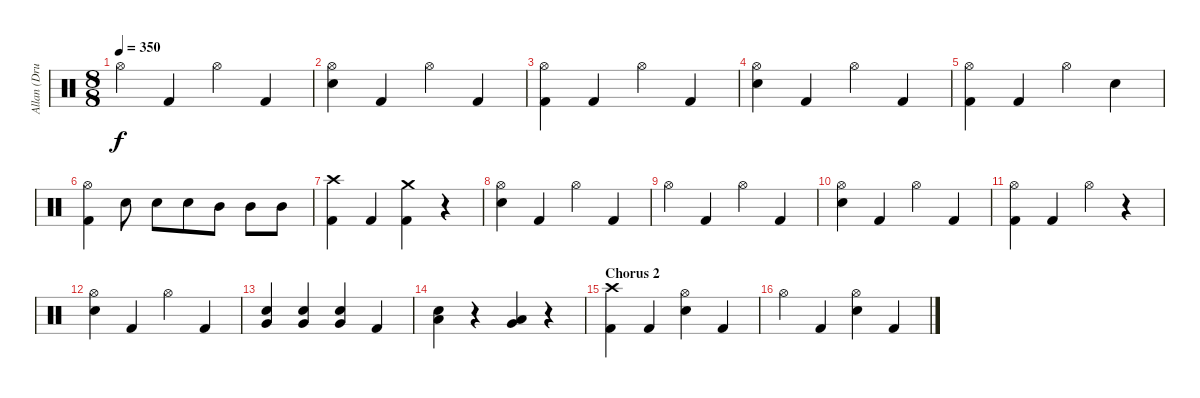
\track ("Allan (Drums)" "Allan (Dru") {instrument percussion}
\staff {score}
\articulation defaults
\ts (8 8)
\tempo 350
\clef neutral
\ks c "Hi-Hat (open)".4{dy f} "Kick (hit) 2".4 "Hi-Hat (open)".4 "Kick (hit) 2".4
|
("Hi-Hat (open)" "Snare (hit) 2").4 "Kick (hit) 2".4 "Hi-Hat (open)".4 "Kick (hit) 2".4 |
("Hi-Hat (open)" "Kick (hit) 2").4 "Kick (hit) 2".4 "Hi-Hat (open)".4 "Kick (hit) 2".4 |
("Hi-Hat (open)" "Snare (hit) 2").4 "Kick (hit) 2".4 "Hi-Hat (open)".4 "Kick (hit) 2".4 |
("Hi-Hat (open)" "Kick (hit) 2").4 "Kick (hit) 2".4 "Hi-Hat (open)".4 "Snare (hit) 2".4 |
("Hi-Hat (open)" "Kick (hit) 2").4 "Snare (hit) 2".8 "Snare (hit) 2".8 "Snare (hit) 2".8 "Mid Tom (hit)".8 "Mid Tom (hit)".8 "Mid Tom (hit)".8 |
("Crash high (hit)" "Kick (hit) 2").4 "Kick (hit) 2".4 ("Crash medium (hit)" "Kick (hit) 2").4 r.4 |
("Hi-Hat (open)" "Snare (hit) 2").4 "Kick (hit) 2".4 "Hi-Hat (open)".4 "Kick (hit) 2".4 |
"Hi-Hat (open)".4 "Kick (hit) 2".4 "Hi-Hat (open)".4 "Kick (hit) 2".4 |
("Hi-Hat (open)" "Snare (hit) 2").4 "Kick (hit) 2".4 "Hi-Hat (open)".4 "Kick (hit) 2".4 |
("Hi-Hat (open)" "Kick (hit) 2").4 "Kick (hit) 2".4 "Hi-Hat (open)".4 r.4 |
("Hi-Hat (open)" "Snare (hit) 2").4 "Kick (hit) 2".4 "Hi-Hat (open)".4 "Kick (hit) 2".4 |
("Very Low Tom (hit)" "Snare (hit) 2").4 ("Very Low Tom (hit)" "Snare (hit) 2").4 ("Very Low Tom (hit)" "Snare (hit) 2").4 "Kick (hit) 2".4 |
("Low Tom (hit)" "Snare (hit) 2").4 r.4 ("Very Low Tom (hit)" "Low Tom (hit)").4 r.4 |
\section ("" "Chorus 2")
("Crash high (hit)" "Kick (hit) 2").4 "Kick (hit) 2".4 ("Hi-Hat (open)" "Snare (hit) 2").4 "Kick (hit) 2".4 |
"Hi-Hat (open)".4 "Kick (hit) 2".4 ("Hi-Hat (open)" "Snare (hit) 2").4 "Kick (hit) 2".4
